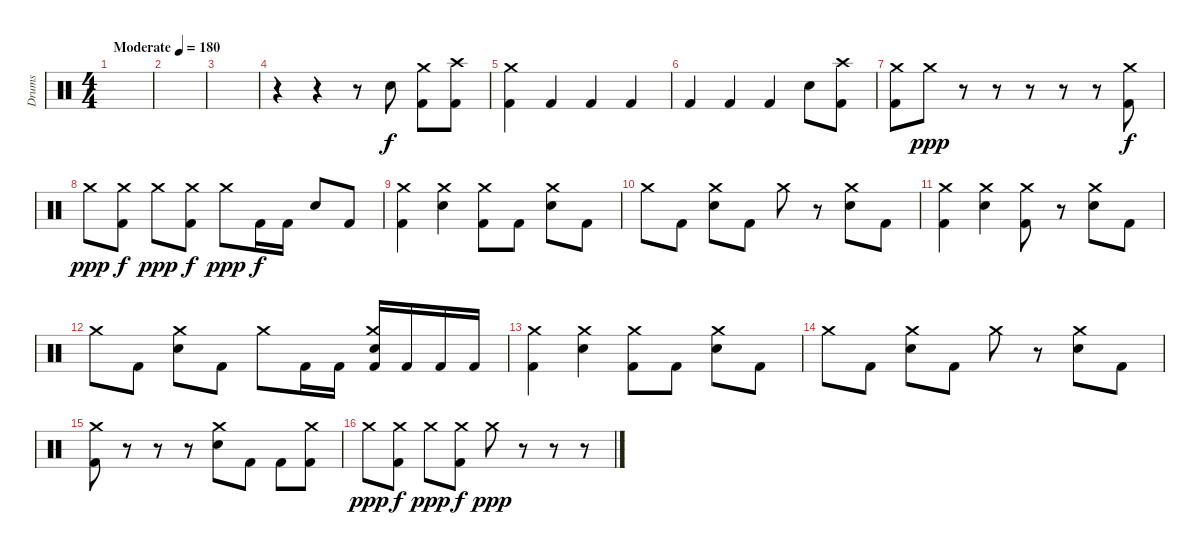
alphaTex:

\track ("Drums" "Drums") {instrument percussion}
\staff
\articulation defaults
\ts (4 4)
\tempo (180 "Moderate")
\clef neutral
\ks c
|
|
|
r.4 r.4 r.8 "Electric Snare (hit)".8 ("Crash medium (hit)" "Kick (hit) 2").8 ("Crash high (hit)" "Kick (hit) 2").8 |
("Crash medium (hit)" "Kick (hit) 2").4 "Kick (hit) 2".4 "Kick (hit) 2".4 "Kick (hit) 2".4 |
"Kick (hit) 2".4 "Kick (hit) 2".4 "Kick (hit) 2".4 "Electric Snare (hit)".8 ("Crash high (hit)" "Kick (hit) 2").8 |
("Crash medium (hit)" "Kick (hit) 2").8 "Crash medium (hit)".8{dy ppp} r.8 r.8 r.8 r.8 r.8 ("Crash medium (hit)" "Kick (hit) 2").8{dy f} |
"Crash medium (hit)".8{dy ppp} ("Crash medium (hit)" "Kick (hit) 2").8{dy f} "Crash medium (hit)".8{dy ppp} ("Crash medium (hit)" "Kick (hit) 2").8{dy f} "Crash medium (hit)".8{dy ppp} "Kick (hit) 2".16{dy f} "Kick (hit) 2".16 "Electric Snare (hit)".8 "Kick (hit) 2".8 |
("Crash medium (hit)" "Kick (hit) 2").4 ("Crash medium (hit)" "Electric Snare (hit)").4 ("Crash medium (hit)" "Kick (hit) 2").8 "Kick (hit) 2".8 ("Crash medium (hit)" "Electric Snare (hit)").8 "Kick (hit) 2".8 |
"Crash medium (hit)".8 "Kick (hit) 2".8 ("Crash medium (hit)" "Electric Snare (hit)").8 "Kick (hit) 2".8 "Crash medium (hit)".8 r.8 ("Crash medium (hit)" "Electric Snare (hit)").8 "Kick (hit) 2".8 |
("Crash medium (hit)" "Kick (hit) 2").4 ("Crash medium (hit)" "Electric Snare (hit)").4 ("Crash medium (hit)" "Kick (hit) 2").8 r.8 ("Crash medium (hit)" "Electric Snare (hit)").8 "Kick (hit) 2".8 |
"Crash medium (hit)".8 "Kick (hit) 2".8 ("Crash medium (hit)" "Electric Snare (hit)").8 "Kick (hit) 2".8 "Crash medium (hit)".8 "Kick (hit) 2".16 "Kick (hit) 2".16 ("Crash medium (hit)" "Electric Snare (hit)" "Kick (hit) 2").16 "Kick (hit) 2".16 "Kick (hit) 2".16 "Kick (hit) 2".16 |
("Crash medium (hit)" "Kick (hit) 2").4 ("Crash medium (hit)" "Electric Snare (hit)").4 ("Crash medium (hit)" "Kick (hit) 2").8 "Kick (hit) 2".8 ("Crash medium (hit)" "Electric Snare (hit)").8 "Kick (hit) 2".8 |
"Crash medium (hit)".8 "Kick (hit) 2".8 ("Crash medium (hit)" "Electric Snare (hit)").8 "Kick (hit) 2".8 "Crash medium (hit)".8 r.8 ("Crash medium (hit)" "Electric Snare (hit)").8 "Kick (hit) 2".8 |
("Crash medium (hit)" "Kick (hit) 2").8 r.8 r.8 r.8 ("Crash medium (hit)" "Electric Snare (hit)").8 "Kick (hit) 2".8 "Kick (hit) 2".8 ("Crash medium (hit)" "Kick (hit) 2").8 |
"Crash medium (hit)".8{dy ppp} ("Crash medium (hit)" "Kick (hit) 2").8{dy f} "Crash medium (hit)".8{dy ppp} ("Crash medium (hit)" "Kick (hit) 2").8{dy f} "Crash medium (hit)".8{dy ppp} r.8 r.8 r.8
